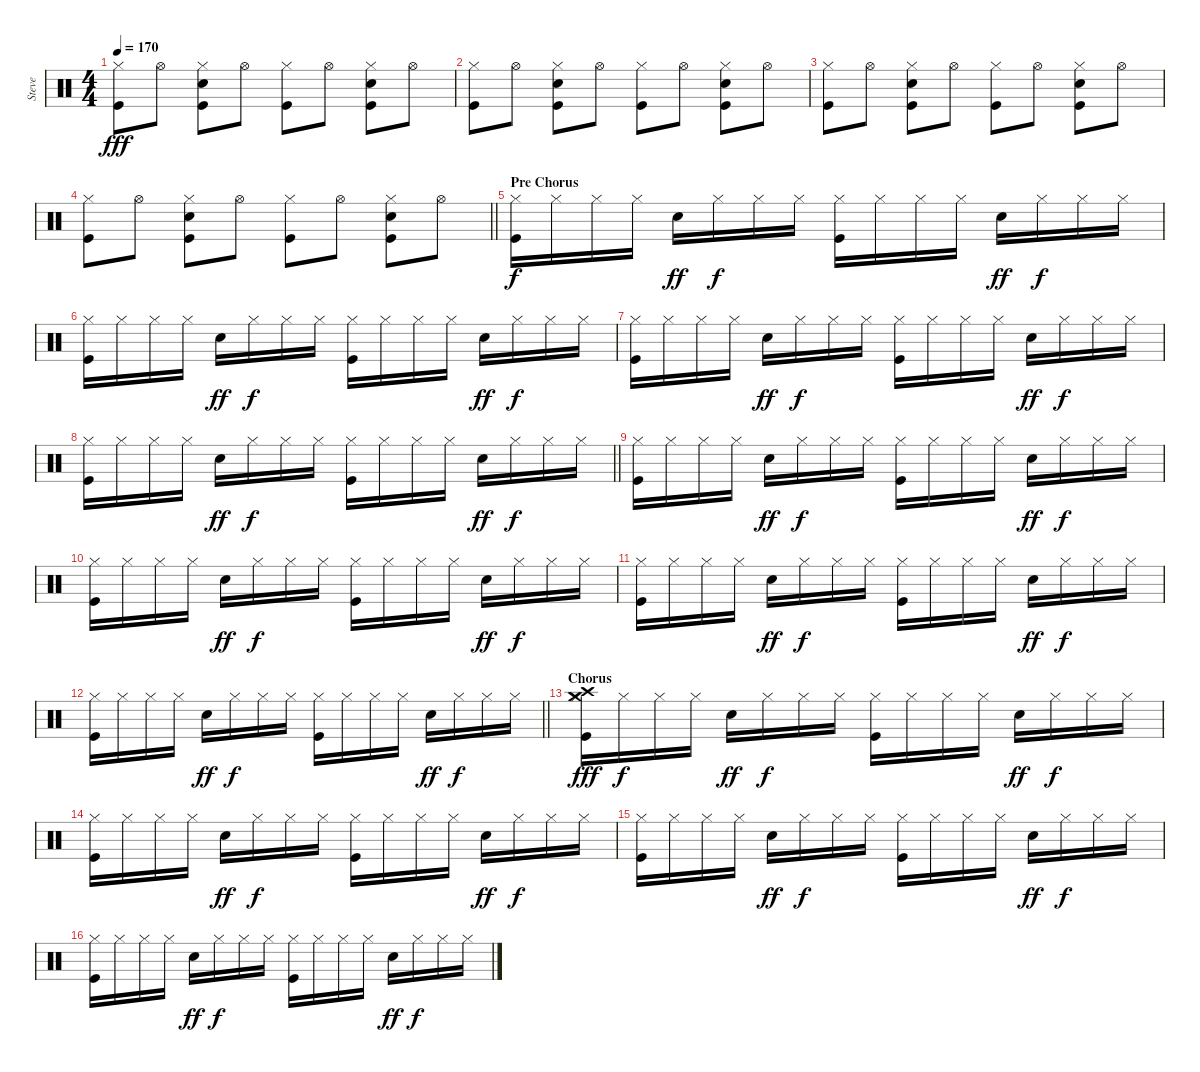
\track ("Steve" "Steve") {instrument percussion}
\staff {score}
\articulation defaults
\ts (4 4)
\tempo 170
\clef neutral
\ks c
("Hi-Hat (closed)" "Kick (hit)").8{dy fff} "Hi-Hat (open)".8 ("Electric Snare (hit)" "Hi-Hat (closed)" "Kick (hit)").8 "Hi-Hat (open)".8 ("Hi-Hat (closed)" "Kick (hit)").8 "Hi-Hat (open)".8 ("Electric Snare (hit)" "Hi-Hat (closed)" "Kick (hit)").8 "Hi-Hat (open)".8 |
("Hi-Hat (closed)" "Kick (hit)").8 "Hi-Hat (open)".8 ("Electric Snare (hit)" "Hi-Hat (closed)" "Kick (hit)").8 "Hi-Hat (open)".8 ("Hi-Hat (closed)" "Kick (hit)").8 "Hi-Hat (open)".8 ("Electric Snare (hit)" "Hi-Hat (closed)" "Kick (hit)").8 "Hi-Hat (open)".8 |
("Hi-Hat (closed)" "Kick (hit)").8 "Hi-Hat (open)".8 ("Electric Snare (hit)" "Hi-Hat (closed)" "Kick (hit)").8 "Hi-Hat (open)".8 ("Hi-Hat (closed)" "Kick (hit)").8 "Hi-Hat (open)".8 ("Electric Snare (hit)" "Hi-Hat (closed)" "Kick (hit)").8 "Hi-Hat (open)".8 |
\barLineRight lightlight
("Hi-Hat (closed)" "Kick (hit)").8 "Hi-Hat (open)".8 ("Electric Snare (hit)" "Hi-Hat (closed)" "Kick (hit)").8 "Hi-Hat (open)".8 ("Hi-Hat (closed)" "Kick (hit)").8 "Hi-Hat (open)".8 ("Electric Snare (hit)" "Hi-Hat (closed)" "Kick (hit)").8 "Hi-Hat (open)".8 |
\section ("" "Pre Chorus")
("Hi-Hat (closed)" "Kick (hit)").16{dy f} "Hi-Hat (closed)".16 "Hi-Hat (closed)".16 "Hi-Hat (closed)".16 "Electric Snare (hit)".16{dy ff} "Hi-Hat (closed)".16{dy f} "Hi-Hat (closed)".16 "Hi-Hat (closed)".16 ("Hi-Hat (closed)" "Kick (hit)").16 "Hi-Hat (closed)".16 "Hi-Hat (closed)".16 "Hi-Hat (closed)".16 "Electric Snare (hit)".16{dy ff} "Hi-Hat (closed)".16{dy f} "Hi-Hat (closed)".16 "Hi-Hat (closed)".16 |
("Hi-Hat (closed)" "Kick (hit)").16 "Hi-Hat (closed)".16 "Hi-Hat (closed)".16 "Hi-Hat (closed)".16 "Electric Snare (hit)".16{dy ff} "Hi-Hat (closed)".16{dy f} "Hi-Hat (closed)".16 "Hi-Hat (closed)".16 ("Hi-Hat (closed)" "Kick (hit)").16 "Hi-Hat (closed)".16 "Hi-Hat (closed)".16 "Hi-Hat (closed)".16 "Electric Snare (hit)".16{dy ff} "Hi-Hat (closed)".16{dy f} "Hi-Hat (closed)".16 "Hi-Hat (closed)".16 |
("Hi-Hat (closed)" "Kick (hit)").16 "Hi-Hat (closed)".16 "Hi-Hat (closed)".16 "Hi-Hat (closed)".16 "Electric Snare (hit)".16{dy ff} "Hi-Hat (closed)".16{dy f} "Hi-Hat (closed)".16 "Hi-Hat (closed)".16 ("Hi-Hat (closed)" "Kick (hit)").16 "Hi-Hat (closed)".16 "Hi-Hat (closed)".16 "Hi-Hat (closed)".16 "Electric Snare (hit)".16{dy ff} "Hi-Hat (closed)".16{dy f} "Hi-Hat (closed)".16 "Hi-Hat (closed)".16 |
\barLineRight lightlight
("Hi-Hat (closed)" "Kick (hit)").16 "Hi-Hat (closed)".16 "Hi-Hat (closed)".16 "Hi-Hat (closed)".16 "Electric Snare (hit)".16{dy ff} "Hi-Hat (closed)".16{dy f} "Hi-Hat (closed)".16 "Hi-Hat (closed)".16 ("Hi-Hat (closed)" "Kick (hit)").16 "Hi-Hat (closed)".16 "Hi-Hat (closed)".16 "Hi-Hat (closed)".16 "Electric Snare (hit)".16{dy ff} "Hi-Hat (closed)".16{dy f} "Hi-Hat (closed)".16 "Hi-Hat (closed)".16 |
("Hi-Hat (closed)" "Kick (hit)").16 "Hi-Hat (closed)".16 "Hi-Hat (closed)".16 "Hi-Hat (closed)".16 "Electric Snare (hit)".16{dy ff} "Hi-Hat (closed)".16{dy f} "Hi-Hat (closed)".16 "Hi-Hat (closed)".16 ("Hi-Hat (closed)" "Kick (hit)").16 "Hi-Hat (closed)".16 "Hi-Hat (closed)".16 "Hi-Hat (closed)".16 "Electric Snare (hit)".16{dy ff} "Hi-Hat (closed)".16{dy f} "Hi-Hat (closed)".16 "Hi-Hat (closed)".16 |
("Hi-Hat (closed)" "Kick (hit)").16 "Hi-Hat (closed)".16 "Hi-Hat (closed)".16 "Hi-Hat (closed)".16 "Electric Snare (hit)".16{dy ff} "Hi-Hat (closed)".16{dy f} "Hi-Hat (closed)".16 "Hi-Hat (closed)".16 ("Hi-Hat (closed)" "Kick (hit)").16 "Hi-Hat (closed)".16 "Hi-Hat (closed)".16 "Hi-Hat (closed)".16 "Electric Snare (hit)".16{dy ff} "Hi-Hat (closed)".16{dy f} "Hi-Hat (closed)".16 "Hi-Hat (closed)".16 |
("Hi-Hat (closed)" "Kick (hit)").16 "Hi-Hat (closed)".16 "Hi-Hat (closed)".16 "Hi-Hat (closed)".16 "Electric Snare (hit)".16{dy ff} "Hi-Hat (closed)".16{dy f} "Hi-Hat (closed)".16 "Hi-Hat (closed)".16 ("Hi-Hat (closed)" "Kick (hit)").16 "Hi-Hat (closed)".16 "Hi-Hat (closed)".16 "Hi-Hat (closed)".16 "Electric Snare (hit)".16{dy ff} "Hi-Hat (closed)".16{dy f} "Hi-Hat (closed)".16 "Hi-Hat (closed)".16 |
\barLineRight lightlight
("Hi-Hat (closed)" "Kick (hit)").16 "Hi-Hat (closed)".16 "Hi-Hat (closed)".16 "Hi-Hat (closed)".16 "Electric Snare (hit)".16{dy ff} "Hi-Hat (closed)".16{dy f} "Hi-Hat (closed)".16 "Hi-Hat (closed)".16 ("Hi-Hat (closed)" "Kick (hit)").16 "Hi-Hat (closed)".16 "Hi-Hat (closed)".16 "Hi-Hat (closed)".16 "Electric Snare (hit)".16{dy ff} "Hi-Hat (closed)".16{dy f} "Hi-Hat (closed)".16 "Hi-Hat (closed)".16 |
\section ("" "Chorus")
("Hi-Hat (closed)" "Crash high (hit)" "Crash medium (hit)" "Kick (hit)").16{dy fff} "Hi-Hat (closed)".16{dy f} "Hi-Hat (closed)".16 "Hi-Hat (closed)".16 "Electric Snare (hit)".16{dy ff} "Hi-Hat (closed)".16{dy f} "Hi-Hat (closed)".16 "Hi-Hat (closed)".16 ("Hi-Hat (closed)" "Kick (hit)").16 "Hi-Hat (closed)".16 "Hi-Hat (closed)".16 "Hi-Hat (closed)".16 "Electric Snare (hit)".16{dy ff} "Hi-Hat (closed)".16{dy f} "Hi-Hat (closed)".16 "Hi-Hat (closed)".16 |
("Hi-Hat (closed)" "Kick (hit)").16 "Hi-Hat (closed)".16 "Hi-Hat (closed)".16 "Hi-Hat (closed)".16 "Electric Snare (hit)".16{dy ff} "Hi-Hat (closed)".16{dy f} "Hi-Hat (closed)".16 "Hi-Hat (closed)".16 ("Hi-Hat (closed)" "Kick (hit)").16 "Hi-Hat (closed)".16 "Hi-Hat (closed)".16 "Hi-Hat (closed)".16 "Electric Snare (hit)".16{dy ff} "Hi-Hat (closed)".16{dy f} "Hi-Hat (closed)".16 "Hi-Hat (closed)".16 |
("Hi-Hat (closed)" "Kick (hit)").16 "Hi-Hat (closed)".16 "Hi-Hat (closed)".16 "Hi-Hat (closed)".16 "Electric Snare (hit)".16{dy ff} "Hi-Hat (closed)".16{dy f} "Hi-Hat (closed)".16 "Hi-Hat (closed)".16 ("Hi-Hat (closed)" "Kick (hit)").16 "Hi-Hat (closed)".16 "Hi-Hat (closed)".16 "Hi-Hat (closed)".16 "Electric Snare (hit)".16{dy ff} "Hi-Hat (closed)".16{dy f} "Hi-Hat (closed)".16 "Hi-Hat (closed)".16 |
("Hi-Hat (closed)" "Kick (hit)").16 "Hi-Hat (closed)".16 "Hi-Hat (closed)".16 "Hi-Hat (closed)".16 "Electric Snare (hit)".16{dy ff} "Hi-Hat (closed)".16{dy f} "Hi-Hat (closed)".16 "Hi-Hat (closed)".16 ("Hi-Hat (closed)" "Kick (hit)").16 "Hi-Hat (closed)".16 "Hi-Hat (closed)".16 "Hi-Hat (closed)".16 "Electric Snare (hit)".16{dy ff} "Hi-Hat (closed)".16{dy f} "Hi-Hat (closed)".16 "Hi-Hat (closed)".16
